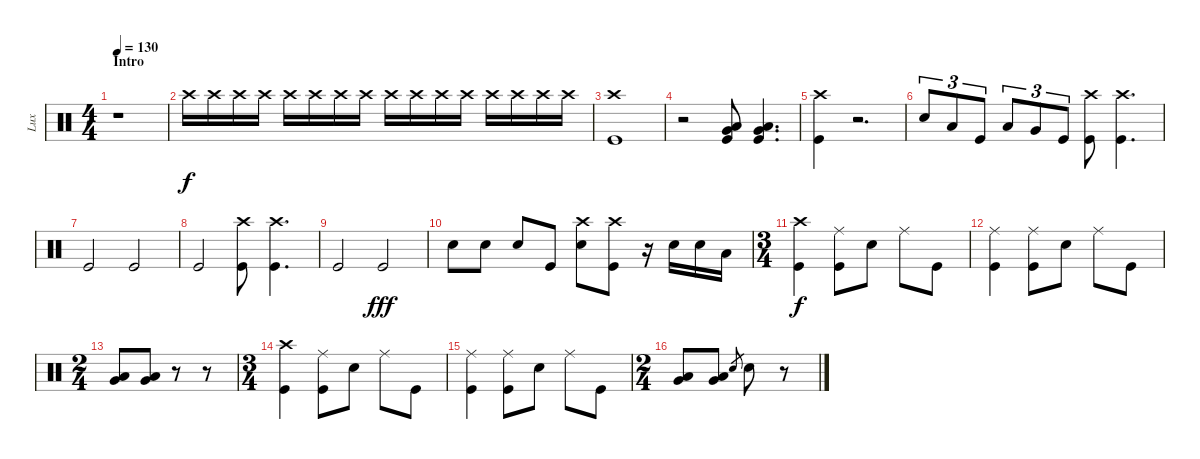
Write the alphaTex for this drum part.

\track ("Lux" "Lux") {instrument percussion}
\staff {score}
\articulation defaults
\ts (4 4)
\section ("" "Intro")
\tempo 130
\clef neutral
\ks c
r.1{dy f volume 0} |
"Crash high (hit)".16{volume 11} "Crash high (hit)".16 "Crash high (hit)".16 "Crash high (hit)".16 "Crash high (hit)".16 "Crash high (hit)".16 "Crash high (hit)".16 "Crash high (hit)".16 "Crash high (hit)".16 "Crash high (hit)".16 "Crash high (hit)".16 "Crash high (hit)".16 "Crash high (hit)".16 "Crash high (hit)".16 "Crash high (hit)".16 "Crash high (hit)".16 |
("Crash high (hit)" "Kick (hit)").1 |
r.2 ("Low Tom (hit)" "Very Low Tom (hit)" "Kick (hit)").8 ("Low Tom (hit)" "Very Low Tom (hit)" "Kick (hit)").4{d} |
("Crash high (hit)" "Kick (hit)").4 r.2{d} |
"Snare (hit) 2".8{tu (3 2)} "Low Tom (hit)".8{tu (3 2)} "Kick (hit)".8{tu (3 2)} "Low Tom (hit)".8{tu (3 2)} "Very Low Tom (hit)".8{tu (3 2)} "Kick (hit)".8{tu (3 2)} ("Crash high (hit)" "Kick (hit)").8 ("Crash high (hit)" "Kick (hit)").4{d} |
"Kick (hit)".2 "Kick (hit)".2 |
"Kick (hit)".2 ("Crash high (hit)" "Kick (hit)").8 ("Crash high (hit)" "Kick (hit)").4{d} |
"Kick (hit)".2 "Kick (hit)".2{dy fff} |
"Snare (hit) 2".8 "Snare (hit) 2".8 "Snare (hit) 2".8 "Kick (hit)".8 ("Crash high (hit)" "Snare (hit) 2").8 ("Crash high (hit)" "Kick (hit)").8 r.16 "Snare (hit) 2".16 "Snare (hit) 2".16 "Low Tom (hit)".16 |
\ts (3 4)
("Crash high (hit)" "Kick (hit)").4{dy f} ("Ride (middle)" "Kick (hit)").8 "Snare (hit) 2".8 "Ride (middle)".8 "Kick (hit)".8 |
("Ride (middle)" "Kick (hit)").4 ("Ride (middle)" "Kick (hit)").8 "Snare (hit) 2".8 "Ride (middle)".8 "Kick (hit)".8 |
\ts (2 4)
("Very Low Tom (hit)" "Low Tom (hit)").8 ("Very Low Tom (hit)" "Low Floor Tom (hit)").8 r.8 r.8 |
\ts (3 4)
("Crash high (hit)" "Kick (hit)").4 ("Ride (middle)" "Kick (hit)").8 "Snare (hit) 2".8 "Ride (middle)".8 "Kick (hit)".8 |
("Ride (middle)" "Kick (hit)").4 ("Ride (middle)" "Kick (hit)").8 "Snare (hit) 2".8 "Ride (middle)".8 "Kick (hit)".8 |
\ts (2 4)
("Very Low Tom (hit)" "Low Tom (hit)").8 ("Very Low Tom (hit)" "Low Floor Tom (hit)").8 "Snare (hit) 2".8{gr} "Snare (hit) 2".8 r.8
